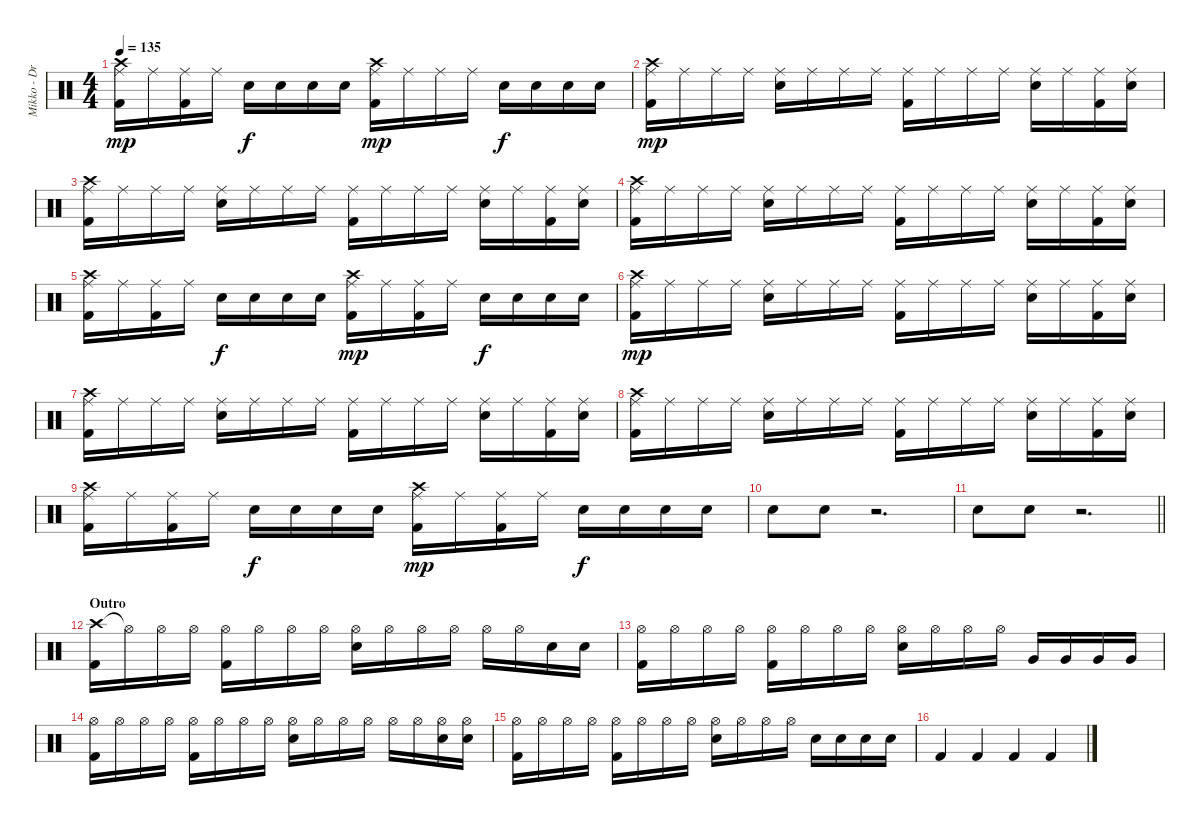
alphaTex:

\track ("Mikko - Drums" "Mikko - Dr") {instrument percussion}
\staff {score}
\articulation defaults
\ts (4 4)
\tempo 135
\clef neutral
\ks c
("Ride (middle)" "Crash high (hit)" "Kick (hit) 2").16{dy mp} "Ride (middle)".16 ("Ride (middle)" "Kick (hit) 2").16 "Ride (middle)".16 "Snare (hit) 2".16{dy f} "Snare (hit) 2".16 "Snare (hit) 2".16 "Snare (hit) 2".16 ("Ride (middle)" "Crash high (hit)" "Kick (hit) 2").16{dy mp} "Ride (middle)".16 "Ride (middle)".16 "Ride (middle)".16 "Snare (hit) 2".16{dy f} "Snare (hit) 2".16 "Snare (hit) 2".16 "Snare (hit) 2".16 |
("Ride (middle)" "Crash high (hit)" "Kick (hit) 2").16{dy mp} "Ride (middle)".16 "Ride (middle)".16 "Ride (middle)".16 ("Ride (middle)" "Snare (hit) 2").16 "Ride (middle)".16 "Ride (middle)".16 "Ride (middle)".16 ("Ride (middle)" "Kick (hit) 2").16 "Ride (middle)".16 "Ride (middle)".16 "Ride (middle)".16 ("Ride (middle)" "Snare (hit) 2").16 "Ride (middle)".16 ("Ride (middle)" "Kick (hit) 2").16 ("Ride (middle)" "Snare (hit) 2").16 |
("Ride (middle)" "Crash high (hit)" "Kick (hit) 2").16 "Ride (middle)".16 "Ride (middle)".16 "Ride (middle)".16 ("Ride (middle)" "Snare (hit) 2").16 "Ride (middle)".16 "Ride (middle)".16 "Ride (middle)".16 ("Ride (middle)" "Kick (hit) 2").16 "Ride (middle)".16 "Ride (middle)".16 "Ride (middle)".16 ("Ride (middle)" "Snare (hit) 2").16 "Ride (middle)".16 ("Ride (middle)" "Kick (hit) 2").16 ("Ride (middle)" "Snare (hit) 2").16 |
("Ride (middle)" "Crash high (hit)" "Kick (hit) 2").16 "Ride (middle)".16 "Ride (middle)".16 "Ride (middle)".16 ("Ride (middle)" "Snare (hit) 2").16 "Ride (middle)".16 "Ride (middle)".16 "Ride (middle)".16 ("Ride (middle)" "Kick (hit) 2").16 "Ride (middle)".16 "Ride (middle)".16 "Ride (middle)".16 ("Ride (middle)" "Snare (hit) 2").16 "Ride (middle)".16 ("Ride (middle)" "Kick (hit) 2").16 ("Ride (middle)" "Snare (hit) 2").16 |
("Ride (middle)" "Crash high (hit)" "Kick (hit) 2").16 "Ride (middle)".16 ("Ride (middle)" "Kick (hit) 2").16 "Ride (middle)".16 "Snare (hit) 2".16{dy f} "Snare (hit) 2".16 "Snare (hit) 2".16 "Snare (hit) 2".16 ("Ride (middle)" "Crash high (hit)" "Kick (hit) 2").16{dy mp} "Ride (middle)".16 ("Ride (middle)" "Kick (hit) 2").16 "Ride (middle)".16 "Snare (hit) 2".16{dy f} "Snare (hit) 2".16 "Snare (hit) 2".16 "Snare (hit) 2".16 |
("Ride (middle)" "Crash high (hit)" "Kick (hit) 2").16{dy mp} "Ride (middle)".16 "Ride (middle)".16 "Ride (middle)".16 ("Ride (middle)" "Snare (hit) 2").16 "Ride (middle)".16 "Ride (middle)".16 "Ride (middle)".16 ("Ride (middle)" "Kick (hit) 2").16 "Ride (middle)".16 "Ride (middle)".16 "Ride (middle)".16 ("Ride (middle)" "Snare (hit) 2").16 "Ride (middle)".16 ("Ride (middle)" "Kick (hit) 2").16 ("Ride (middle)" "Snare (hit) 2").16 |
("Ride (middle)" "Crash high (hit)" "Kick (hit) 2").16 "Ride (middle)".16 "Ride (middle)".16 "Ride (middle)".16 ("Ride (middle)" "Snare (hit) 2").16 "Ride (middle)".16 "Ride (middle)".16 "Ride (middle)".16 ("Ride (middle)" "Kick (hit) 2").16 "Ride (middle)".16 "Ride (middle)".16 "Ride (middle)".16 ("Ride (middle)" "Snare (hit) 2").16 "Ride (middle)".16 ("Ride (middle)" "Kick (hit) 2").16 ("Ride (middle)" "Snare (hit) 2").16 |
("Ride (middle)" "Crash high (hit)" "Kick (hit) 2").16 "Ride (middle)".16 "Ride (middle)".16 "Ride (middle)".16 ("Ride (middle)" "Snare (hit) 2").16 "Ride (middle)".16 "Ride (middle)".16 "Ride (middle)".16 ("Ride (middle)" "Kick (hit) 2").16 "Ride (middle)".16 "Ride (middle)".16 "Ride (middle)".16 ("Ride (middle)" "Snare (hit) 2").16 "Ride (middle)".16 ("Ride (middle)" "Kick (hit) 2").16 ("Ride (middle)" "Snare (hit) 2").16 |
("Ride (middle)" "Crash high (hit)" "Kick (hit) 2").16 "Ride (middle)".16 ("Ride (middle)" "Kick (hit) 2").16 "Ride (middle)".16 "Snare (hit) 2".16{dy f} "Snare (hit) 2".16 "Snare (hit) 2".16 "Snare (hit) 2".16 ("Ride (middle)" "Crash high (hit)" "Kick (hit) 2").16{dy mp} "Ride (middle)".16 ("Ride (middle)" "Kick (hit) 2").16 "Ride (middle)".16 "Snare (hit) 2".16{dy f} "Snare (hit) 2".16 "Snare (hit) 2".16 "Snare (hit) 2".16 |
"Electric Snare (hit)".8 "Electric Snare (hit)".8 r.2{d} |
\barLineRight lightlight "Electric Snare (hit)".8 "Electric Snare (hit)".8
r.2{d} |
\section ("" "Outro")
("Crash high (hit)" "Kick (hit) 2").16 "Hi-Hat (open)"{t}.16 "Hi-Hat (open)".16 "Hi-Hat (open)".16 ("Hi-Hat (open)" "Kick (hit) 2").16 "Hi-Hat (open)".16 "Hi-Hat (open)".16 "Hi-Hat (open)".16 ("Hi-Hat (open)" "Snare (hit) 2").16 "Hi-Hat (open)".16 "Hi-Hat (open)".16 "Hi-Hat (open)".16 "Hi-Hat (open)".16 "Hi-Hat (open)".16 "Snare (hit) 2".16 "Snare (hit) 2".16 |
("Hi-Hat (open)" "Kick (hit) 2").16 "Hi-Hat (open)".16 "Hi-Hat (open)".16 "Hi-Hat (open)".16 ("Hi-Hat (open)" "Kick (hit) 2").16 "Hi-Hat (open)".16 "Hi-Hat (open)".16 "Hi-Hat (open)".16 ("Hi-Hat (open)" "Snare (hit) 2").16 "Hi-Hat (open)".16 "Hi-Hat (open)".16 "Hi-Hat (open)".16 "Very Low Tom (hit)".16 "Very Low Tom (hit)".16 "Very Low Tom (hit)".16 "Very Low Tom (hit)".16 |
("Hi-Hat (open)" "Kick (hit) 2").16 "Hi-Hat (open)".16 "Hi-Hat (open)".16 "Hi-Hat (open)".16 ("Hi-Hat (open)" "Kick (hit) 2").16 "Hi-Hat (open)".16 "Hi-Hat (open)".16 "Hi-Hat (open)".16 ("Hi-Hat (open)" "Snare (hit) 2").16 "Hi-Hat (open)".16 "Hi-Hat (open)".16 "Hi-Hat (open)".16 "Hi-Hat (open)".16 "Hi-Hat (open)".16 ("Hi-Hat (open)" "Snare (hit) 2").16 ("Hi-Hat (open)" "Snare (hit) 2").16 |
("Hi-Hat (open)" "Kick (hit) 2").16 "Hi-Hat (open)".16 "Hi-Hat (open)".16 "Hi-Hat (open)".16 ("Hi-Hat (open)" "Kick (hit) 2").16 "Hi-Hat (open)".16 "Hi-Hat (open)".16 "Hi-Hat (open)".16 ("Hi-Hat (open)" "Snare (hit) 2").16 "Hi-Hat (open)".16 "Hi-Hat (open)".16 "Hi-Hat (open)".16 "Snare (hit) 2".16 "Snare (hit) 2".16 "Snare (hit) 2".16 "Snare (hit) 2".16 |
"Kick (hit) 2".4 "Kick (hit) 2".4 "Kick (hit) 2".4 "Kick (hit) 2".4
